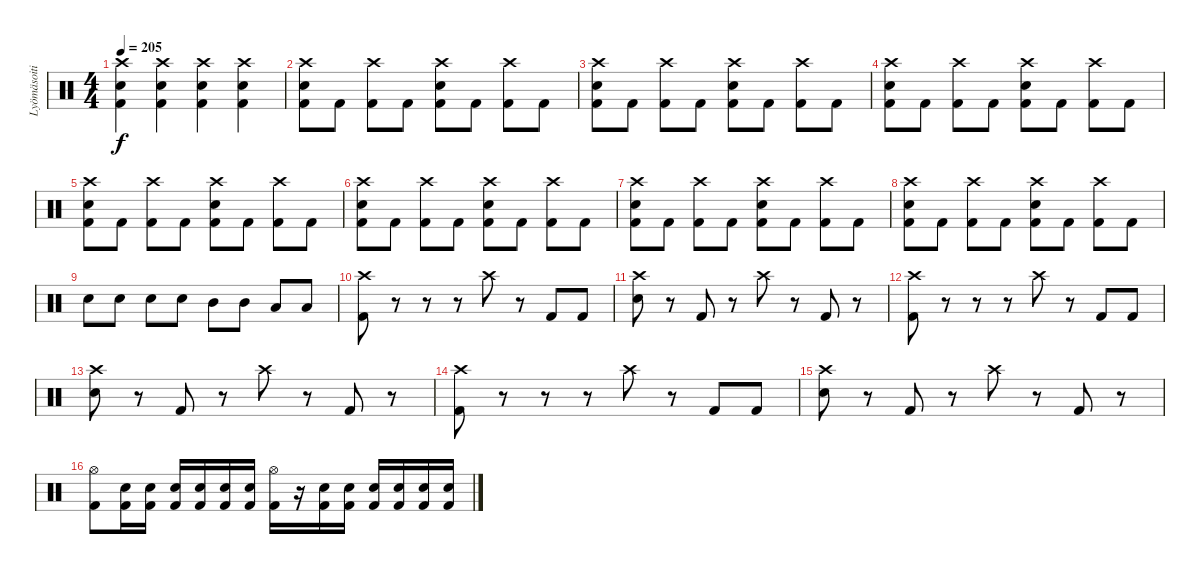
\track ("Lyömäsoitin" "Lyömäsoiti") {instrument percussion}
\staff {score}
\articulation defaults
\ts (4 4)
\tempo 205
\clef neutral
\ks c
("Kick (hit) 2" "Electric Snare (hit)" "Crash high (hit)").4{dy f} ("Kick (hit) 2" "Electric Snare (hit)" "Crash high (hit)").4 ("Kick (hit) 2" "Electric Snare (hit)" "Crash high (hit)").4 ("Kick (hit) 2" "Electric Snare (hit)" "Crash high (hit)").4 |
("Kick (hit) 2" "Electric Snare (hit)" "Crash high (hit)").8 "Kick (hit) 2".8 ("Kick (hit) 2" "Crash high (hit)").8 "Kick (hit) 2".8 ("Kick (hit) 2" "Electric Snare (hit)" "Crash high (hit)").8 "Kick (hit) 2".8 ("Kick (hit) 2" "Crash high (hit)").8 "Kick (hit) 2".8 |
("Kick (hit) 2" "Electric Snare (hit)" "Crash high (hit)").8 "Kick (hit) 2".8 ("Kick (hit) 2" "Crash high (hit)").8 "Kick (hit) 2".8 ("Kick (hit) 2" "Electric Snare (hit)" "Crash high (hit)").8 "Kick (hit) 2".8 ("Kick (hit) 2" "Crash high (hit)").8 "Kick (hit) 2".8 |
("Kick (hit) 2" "Electric Snare (hit)" "Crash high (hit)").8 "Kick (hit) 2".8 ("Kick (hit) 2" "Crash high (hit)").8 "Kick (hit) 2".8 ("Kick (hit) 2" "Electric Snare (hit)" "Crash high (hit)").8 "Kick (hit) 2".8 ("Kick (hit) 2" "Crash high (hit)").8 "Kick (hit) 2".8 |
("Kick (hit) 2" "Electric Snare (hit)" "Crash high (hit)").8 "Kick (hit) 2".8 ("Kick (hit) 2" "Crash high (hit)").8 "Kick (hit) 2".8 ("Kick (hit) 2" "Electric Snare (hit)" "Crash high (hit)").8 "Kick (hit) 2".8 ("Kick (hit) 2" "Crash high (hit)").8 "Kick (hit) 2".8 |
("Kick (hit) 2" "Electric Snare (hit)" "Crash high (hit)").8 "Kick (hit) 2".8 ("Kick (hit) 2" "Crash high (hit)").8 "Kick (hit) 2".8 ("Kick (hit) 2" "Electric Snare (hit)" "Crash high (hit)").8 "Kick (hit) 2".8 ("Kick (hit) 2" "Crash high (hit)").8 "Kick (hit) 2".8 |
("Kick (hit) 2" "Electric Snare (hit)" "Crash high (hit)").8 "Kick (hit) 2".8 ("Kick (hit) 2" "Crash high (hit)").8 "Kick (hit) 2".8 ("Kick (hit) 2" "Electric Snare (hit)" "Crash high (hit)").8 "Kick (hit) 2".8 ("Kick (hit) 2" "Crash high (hit)").8 "Kick (hit) 2".8 |
("Kick (hit) 2" "Electric Snare (hit)" "Crash high (hit)").8 "Kick (hit) 2".8 ("Kick (hit) 2" "Crash high (hit)").8 "Kick (hit) 2".8 ("Kick (hit) 2" "Electric Snare (hit)" "Crash high (hit)").8 "Kick (hit) 2".8 ("Kick (hit) 2" "Crash high (hit)").8 "Kick (hit) 2".8 |
"Electric Snare (hit)".8 "Electric Snare (hit)".8 "Electric Snare (hit)".8 "Electric Snare (hit)".8 "Mid Tom (hit)".8 "Mid Tom (hit)".8 "Low Tom (hit)".8 "Low Tom (hit)".8 |
("Kick (hit) 2" "Crash high (hit)").8 r.8 r.8 r.8 "Crash high (hit)".8 r.8 "Kick (hit) 2".8 "Kick (hit) 2".8 |
("Electric Snare (hit)" "Crash high (hit)").8 r.8 "Kick (hit) 2".8 r.8 "Crash high (hit)".8 r.8 "Kick (hit) 2".8 r.8 |
("Kick (hit) 2" "Crash high (hit)").8 r.8 r.8 r.8 "Crash high (hit)".8 r.8 "Kick (hit) 2".8 "Kick (hit) 2".8 |
("Electric Snare (hit)" "Crash high (hit)").8 r.8 "Kick (hit) 2".8 r.8 "Crash high (hit)".8 r.8 "Kick (hit) 2".8 r.8 |
("Kick (hit) 2" "Crash high (hit)").8 r.8 r.8 r.8 "Crash high (hit)".8 r.8 "Kick (hit) 2".8 "Kick (hit) 2".8 |
("Electric Snare (hit)" "Crash high (hit)").8 r.8 "Kick (hit) 2".8 r.8 "Crash high (hit)".8 r.8 "Kick (hit) 2".8 r.8 |
("Kick (hit) 2" "Hi-Hat (open)").8 ("Kick (hit) 2" "Electric Snare (hit)").16 ("Kick (hit) 2" "Electric Snare (hit)").16 ("Kick (hit) 2" "Electric Snare (hit)").16 ("Kick (hit) 2" "Electric Snare (hit)").16 ("Kick (hit) 2" "Electric Snare (hit)").16 ("Kick (hit) 2" "Electric Snare (hit)").16 ("Kick (hit) 2" "Hi-Hat (open)").16 r.16 ("Kick (hit) 2" "Electric Snare (hit)").16 ("Kick (hit) 2" "Electric Snare (hit)").16 ("Kick (hit) 2" "Electric Snare (hit)").16 ("Kick (hit) 2" "Electric Snare (hit)").16 ("Kick (hit) 2" "Electric Snare (hit)").16 ("Kick (hit) 2" "Electric Snare (hit)").16
